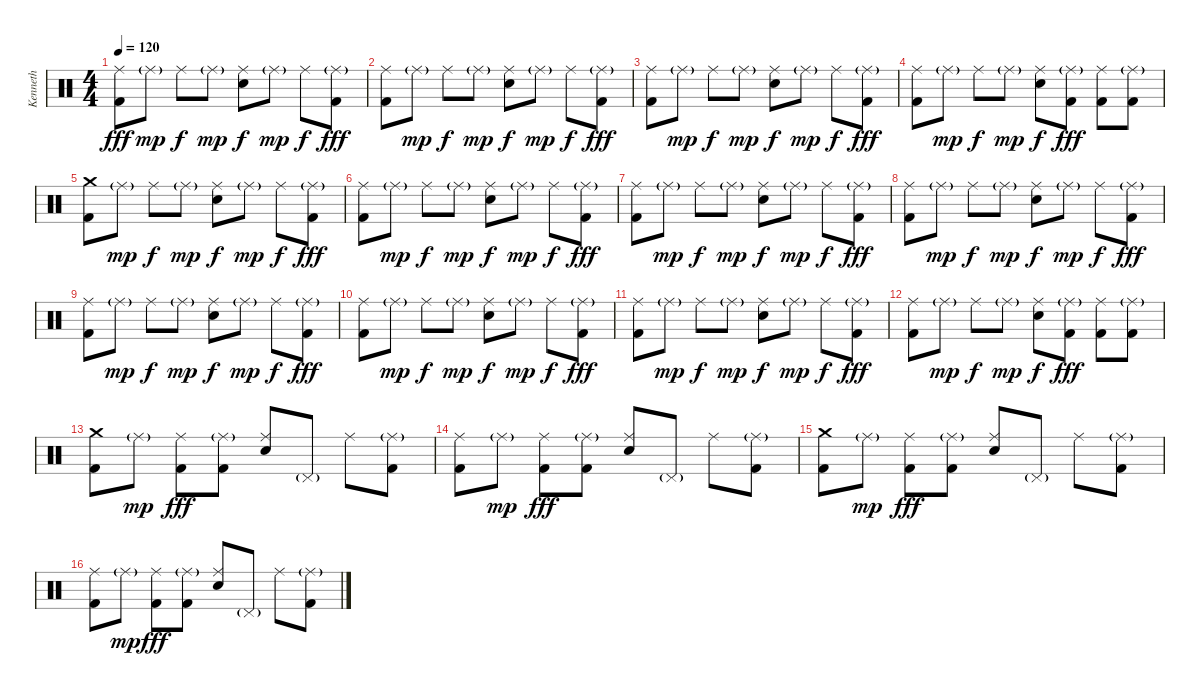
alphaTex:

\track ("Kenneth" "Kenneth") {instrument percussion}
\staff {score}
\articulation defaults
\ts (4 4)
\tempo 120
\clef neutral
\ks c
("Ride (middle)" "Kick (hit) 2").8{dy fff} "Ride (middle)"{g}.8{dy mp} "Ride (middle)".8{dy f} "Ride (middle)"{g}.8{dy mp} ("Ride (middle)" "Electric Snare (hit)").8{dy f} "Ride (middle)"{g}.8{dy mp} "Ride (middle)".8{dy f} ("Ride (middle)"{g} "Kick (hit) 2").8{dy fff} |
("Ride (middle)" "Kick (hit) 2").8 "Ride (middle)"{g}.8{dy mp} "Ride (middle)".8{dy f} "Ride (middle)"{g}.8{dy mp} ("Ride (middle)" "Electric Snare (hit)").8{dy f} "Ride (middle)"{g}.8{dy mp} "Ride (middle)".8{dy f} ("Ride (middle)"{g} "Kick (hit) 2").8{dy fff} |
("Ride (middle)" "Kick (hit) 2").8 "Ride (middle)"{g}.8{dy mp} "Ride (middle)".8{dy f} "Ride (middle)"{g}.8{dy mp} ("Ride (middle)" "Electric Snare (hit)").8{dy f} "Ride (middle)"{g}.8{dy mp} "Ride (middle)".8{dy f} ("Ride (middle)"{g} "Kick (hit) 2").8{dy fff} |
("Ride (middle)" "Kick (hit) 2").8 "Ride (middle)"{g}.8{dy mp} "Ride (middle)".8{dy f} "Ride (middle)"{g}.8{dy mp} ("Ride (middle)" "Electric Snare (hit)").8{dy f} ("Ride (middle)"{g} "Kick (hit) 2").8{dy fff} ("Ride (middle)" "Kick (hit) 2").8 ("Ride (middle)"{g} "Kick (hit) 2").8 |
("Crash medium (hit)" "Kick (hit) 2").8 "Ride (middle)"{g}.8{dy mp} "Ride (middle)".8{dy f} "Ride (middle)"{g}.8{dy mp} ("Ride (middle)" "Electric Snare (hit)").8{dy f} "Ride (middle)"{g}.8{dy mp} "Ride (middle)".8{dy f} ("Ride (middle)"{g} "Kick (hit) 2").8{dy fff} |
("Ride (middle)" "Kick (hit) 2").8 "Ride (middle)"{g}.8{dy mp} "Ride (middle)".8{dy f} "Ride (middle)"{g}.8{dy mp} ("Ride (middle)" "Electric Snare (hit)").8{dy f} "Ride (middle)"{g}.8{dy mp} "Ride (middle)".8{dy f} ("Ride (middle)"{g} "Kick (hit) 2").8{dy fff} |
("Ride (middle)" "Kick (hit) 2").8 "Ride (middle)"{g}.8{dy mp} "Ride (middle)".8{dy f} "Ride (middle)"{g}.8{dy mp} ("Ride (middle)" "Electric Snare (hit)").8{dy f} "Ride (middle)"{g}.8{dy mp} "Ride (middle)".8{dy f} ("Ride (middle)"{g} "Kick (hit) 2").8{dy fff} |
("Ride (middle)" "Kick (hit) 2").8 "Ride (middle)"{g}.8{dy mp} "Ride (middle)".8{dy f} "Ride (middle)"{g}.8{dy mp} ("Ride (middle)" "Electric Snare (hit)").8{dy f} "Ride (middle)"{g}.8{dy mp} "Ride (middle)".8{dy f} ("Ride (middle)"{g} "Kick (hit) 2").8{dy fff} |
("Ride (middle)" "Kick (hit) 2").8 "Ride (middle)"{g}.8{dy mp} "Ride (middle)".8{dy f} "Ride (middle)"{g}.8{dy mp} ("Ride (middle)" "Electric Snare (hit)").8{dy f} "Ride (middle)"{g}.8{dy mp} "Ride (middle)".8{dy f} ("Ride (middle)"{g} "Kick (hit) 2").8{dy fff} |
("Ride (middle)" "Kick (hit) 2").8 "Ride (middle)"{g}.8{dy mp} "Ride (middle)".8{dy f} "Ride (middle)"{g}.8{dy mp} ("Ride (middle)" "Electric Snare (hit)").8{dy f} "Ride (middle)"{g}.8{dy mp} "Ride (middle)".8{dy f} ("Ride (middle)"{g} "Kick (hit) 2").8{dy fff} |
("Ride (middle)" "Kick (hit) 2").8 "Ride (middle)"{g}.8{dy mp} "Ride (middle)".8{dy f} "Ride (middle)"{g}.8{dy mp} ("Ride (middle)" "Electric Snare (hit)").8{dy f} "Ride (middle)"{g}.8{dy mp} "Ride (middle)".8{dy f} ("Ride (middle)"{g} "Kick (hit) 2").8{dy fff} |
("Ride (middle)" "Kick (hit) 2").8 "Ride (middle)"{g}.8{dy mp} "Ride (middle)".8{dy f} "Ride (middle)"{g}.8{dy mp} ("Ride (middle)" "Electric Snare (hit)").8{dy f} ("Ride (middle)"{g} "Kick (hit) 2").8{dy fff} ("Ride (middle)" "Kick (hit) 2").8 ("Ride (middle)"{g} "Kick (hit) 2").8 |
("Crash medium (hit)" "Kick (hit) 2").8 "Ride (middle)"{g}.8{dy mp} ("Ride (middle)" "Kick (hit) 2").8{dy fff} ("Ride (middle)"{g} "Kick (hit) 2").8 ("Ride (middle)" "Electric Snare (hit)").8 "Pedal Hi-Hat (hit)"{g}.8 "Ride (middle)".8 ("Ride (middle)"{g} "Kick (hit) 2").8 |
("Ride (middle)" "Kick (hit) 2").8 "Ride (middle)"{g}.8{dy mp} ("Ride (middle)" "Kick (hit) 2").8{dy fff} ("Ride (middle)"{g} "Kick (hit) 2").8 ("Ride (middle)" "Electric Snare (hit)").8 "Pedal Hi-Hat (hit)"{g}.8 "Ride (middle)".8 ("Ride (middle)"{g} "Kick (hit) 2").8 |
("Crash medium (hit)" "Kick (hit) 2").8 "Ride (middle)"{g}.8{dy mp} ("Ride (middle)" "Kick (hit) 2").8{dy fff} ("Ride (middle)"{g} "Kick (hit) 2").8 ("Ride (middle)" "Electric Snare (hit)").8 "Pedal Hi-Hat (hit)"{g}.8 "Ride (middle)".8 ("Ride (middle)"{g} "Kick (hit) 2").8 |
("Ride (middle)" "Kick (hit) 2").8 "Ride (middle)"{g}.8{dy mp} ("Ride (middle)" "Kick (hit) 2").8{dy fff} ("Ride (middle)"{g} "Kick (hit) 2").8 ("Ride (middle)" "Electric Snare (hit)").8 "Pedal Hi-Hat (hit)"{g}.8 "Ride (middle)".8 ("Ride (middle)"{g} "Kick (hit) 2").8
